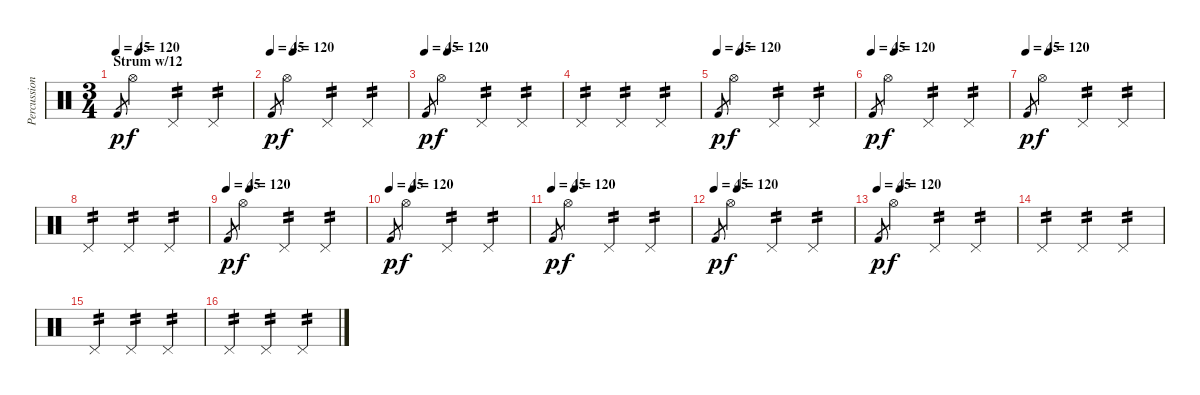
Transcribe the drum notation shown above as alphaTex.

\track ("Percussion" "Percussion") {instrument percussion}
\staff {score}
\articulation defaults
\ts (3 4)
\section ("" "Strum w/12")
\tempo 45
\tempo (120 0.16666666666666666)
\clef neutral
\ks c "Kick (hit) 2".8{gr dy p} "Hi-Hat (open)"{tr (44 16)}.4{dy f} "Pedal Hi-Hat (hit)".4{tp 2} "Pedal Hi-Hat (hit)".4{tp 2}
|
\tempo 45
\tempo (120 0.16666666666666666)
"Kick (hit) 2".8{gr dy p} "Hi-Hat (open)"{tr (44 16)}.4{dy f} "Pedal Hi-Hat (hit)".4{tp 2} "Pedal Hi-Hat (hit)".4{tp 2} |
\tempo 45
\tempo (120 0.16666666666666666)
"Kick (hit) 2".8{gr dy p} "Hi-Hat (open)"{tr (44 16)}.4{dy f} "Pedal Hi-Hat (hit)".4{tp 2} "Pedal Hi-Hat (hit)".4{tp 2} |
"Pedal Hi-Hat (hit)".4{tp 2} "Pedal Hi-Hat (hit)".4{tp 2} "Pedal Hi-Hat (hit)".4{tp 2} |
\tempo 45
\tempo (120 0.16666666666666666)
"Kick (hit) 2".8{gr dy p} "Hi-Hat (open)"{tr (44 16)}.4{dy f} "Pedal Hi-Hat (hit)".4{tp 2} "Pedal Hi-Hat (hit)".4{tp 2} |
\tempo 45
\tempo (120 0.16666666666666666)
"Kick (hit) 2".8{gr dy p} "Hi-Hat (open)"{tr (44 16)}.4{dy f} "Pedal Hi-Hat (hit)".4{tp 2} "Pedal Hi-Hat (hit)".4{tp 2} |
\tempo 45
\tempo (120 0.16666666666666666)
"Kick (hit) 2".8{gr dy p} "Hi-Hat (open)"{tr (44 16)}.4{dy f} "Pedal Hi-Hat (hit)".4{tp 2} "Pedal Hi-Hat (hit)".4{tp 2} |
"Pedal Hi-Hat (hit)".4{tp 2} "Pedal Hi-Hat (hit)".4{tp 2} "Pedal Hi-Hat (hit)".4{tp 2} |
\tempo 45
\tempo (120 0.16666666666666666)
"Kick (hit) 2".8{gr dy p} "Hi-Hat (open)"{tr (44 16)}.4{dy f} "Pedal Hi-Hat (hit)".4{tp 2} "Pedal Hi-Hat (hit)".4{tp 2} |
\tempo 45
\tempo (120 0.16666666666666666)
"Kick (hit) 2".8{gr dy p} "Hi-Hat (open)"{tr (44 16)}.4{dy f} "Pedal Hi-Hat (hit)".4{tp 2} "Pedal Hi-Hat (hit)".4{tp 2} |
\tempo 45
\tempo (120 0.16666666666666666)
"Kick (hit) 2".8{gr dy p} "Hi-Hat (open)"{tr (44 16)}.4{dy f} "Pedal Hi-Hat (hit)".4{tp 2} "Pedal Hi-Hat (hit)".4{tp 2} |
\tempo 45
\tempo (120 0.16666666666666666)
"Kick (hit) 2".8{gr dy p} "Hi-Hat (open)"{tr (44 16)}.4{dy f} "Pedal Hi-Hat (hit)".4{tp 2} "Pedal Hi-Hat (hit)".4{tp 2} |
\tempo 45
\tempo (120 0.16666666666666666)
"Kick (hit) 2".8{gr dy p} "Hi-Hat (open)"{tr (44 16)}.4{dy f} "Pedal Hi-Hat (hit)".4{tp 2} "Pedal Hi-Hat (hit)".4{tp 2} |
"Pedal Hi-Hat (hit)".4{tp 2} "Pedal Hi-Hat (hit)".4{tp 2} "Pedal Hi-Hat (hit)".4{tp 2} |
"Pedal Hi-Hat (hit)".4{tp 2} "Pedal Hi-Hat (hit)".4{tp 2} "Pedal Hi-Hat (hit)".4{tp 2} |
"Pedal Hi-Hat (hit)".4{tp 2} "Pedal Hi-Hat (hit)".4{tp 2} "Pedal Hi-Hat (hit)".4{tp 2}
